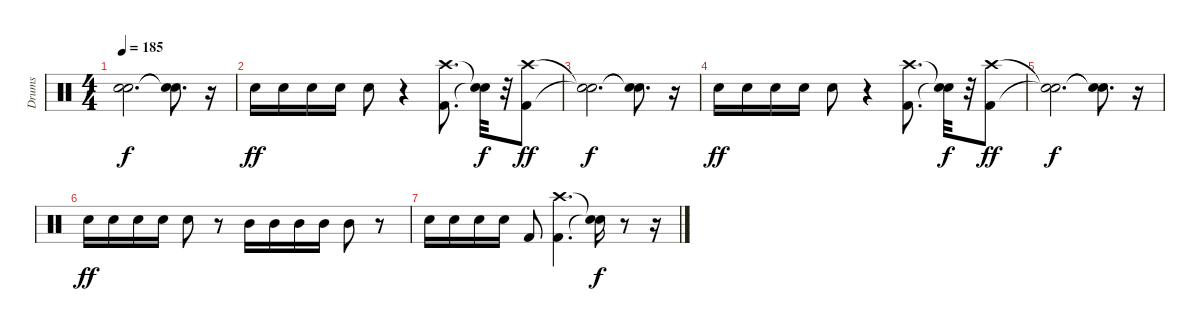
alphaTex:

\track ("Drums" "Drums") {instrument percussion}
\staff {score}
\articulation defaults
\ts (4 4)
\tempo 185
\clef neutral
\ks c
("Snare (hit)"{t} "Snare (hit)"{t}).2{d dy f} ("Snare (hit)"{t} "Snare (hit)"{t}).8{d} r.16 |
"Snare (hit) 2".16{dy ff} "Snare (hit) 2".16 "Snare (hit) 2".16 "Snare (hit) 2".16 "Snare (hit) 2".8 r.4 ("Kick (hit) 2" "Crash high (hit)").8{d} ("Snare (hit)"{t} "Snare (hit)"{t}).32{dy f} r.32 ("Kick (hit) 2" "Crash high (hit)").8{dy ff} |
("Snare (hit)"{t} "Snare (hit)"{t}).2{d dy f} ("Snare (hit)"{t} "Snare (hit)"{t}).8{d} r.16 |
"Snare (hit) 2".16{dy ff} "Snare (hit) 2".16 "Snare (hit) 2".16 "Snare (hit) 2".16 "Snare (hit) 2".8 r.4 ("Kick (hit) 2" "Crash high (hit)").8{d} ("Snare (hit)"{t} "Snare (hit)"{t}).32{dy f} r.32 ("Kick (hit) 2" "Crash high (hit)").8{dy ff} |
("Snare (hit)"{t} "Snare (hit)"{t}).2{d dy f} ("Snare (hit)"{t} "Snare (hit)"{t}).8{d} r.16 |
"Snare (hit) 2".16{dy ff} "Snare (hit) 2".16 "Snare (hit) 2".16 "Snare (hit) 2".16 "Snare (hit) 2".8 r.8 "Mid Tom (hit)".16 "Mid Tom (hit)".16 "Mid Tom (hit)".16 "Mid Tom (hit)".16 "Mid Tom (hit)".8 r.8 |
"Snare (hit) 2".16 "Snare (hit) 2".16 "Snare (hit) 2".16 "Snare (hit) 2".16 "Kick (hit) 2".8 ("Kick (hit) 2" "Crash high (hit)").4{d} ("Snare (hit)"{t} "Snare (hit)"{t}).16{dy f} r.8 r.16
